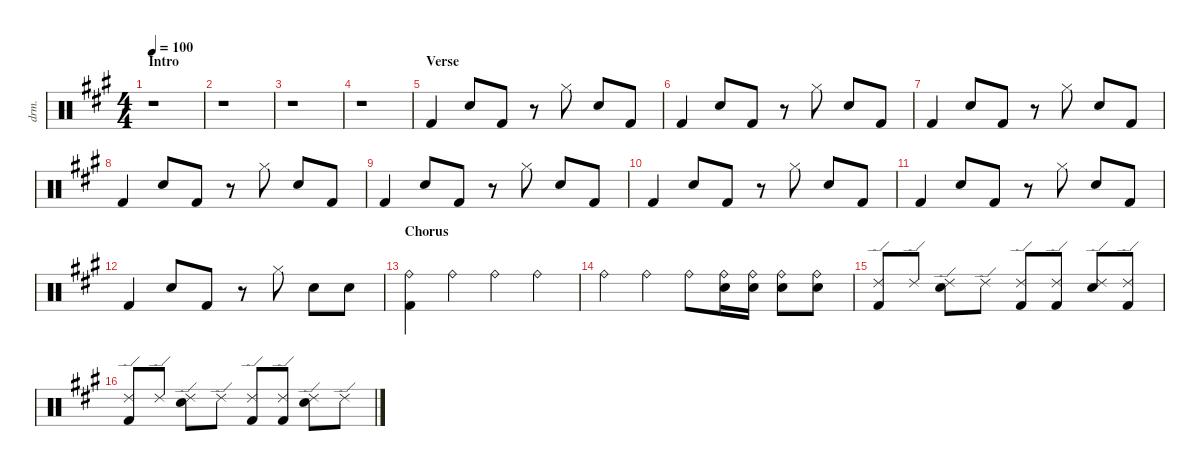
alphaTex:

\defaultSystemsLayout 4
\hideDynamics
\bracketExtendMode nobrackets
\track ("Drums" "drm.") {instrument percussion}
\staff {score}
\articulation defaults
\ts (4 4)
\section ("" "Intro")
\tempo 100
\clef neutral
\ks a
r.1{dy f} |
r.1 |
r.1 |
r.1 |
\section ("" "Verse")
"Kick (hit) 2"{acc forcenatural}.4 "Snare (hit) 2"{acc forcenatural}.8 "Kick (hit) 2"{acc forcenatural}.8 r.8 "Hi-Hat (closed)"{acc forcenatural}.8 "Snare (hit) 2"{acc forcenatural}.8 "Kick (hit) 2"{acc forcenatural}.8 |
"Kick (hit) 2"{acc forcenatural}.4 "Snare (hit) 2"{acc forcenatural}.8 "Kick (hit) 2"{acc forcenatural}.8 r.8 "Hi-Hat (closed)"{acc forcenatural}.8 "Snare (hit) 2"{acc forcenatural}.8 "Kick (hit) 2"{acc forcenatural}.8 |
"Kick (hit) 2"{acc forcenatural}.4 "Snare (hit) 2"{acc forcenatural}.8 "Kick (hit) 2"{acc forcenatural}.8 r.8 "Hi-Hat (closed)"{acc forcenatural}.8 "Snare (hit) 2"{acc forcenatural}.8 "Kick (hit) 2"{acc forcenatural}.8 |
"Kick (hit) 2"{acc forcenatural}.4 "Snare (hit) 2"{acc forcenatural}.8 "Kick (hit) 2"{acc forcenatural}.8 r.8 "Hi-Hat (closed)"{acc forcenatural}.8 "Snare (hit) 2"{acc forcenatural}.8 "Kick (hit) 2"{acc forcenatural}.8 |
"Kick (hit) 2"{acc forcenatural}.4 "Snare (hit) 2"{acc forcenatural}.8 "Kick (hit) 2"{acc forcenatural}.8 r.8 "Hi-Hat (closed)"{acc forcenatural}.8 "Snare (hit) 2"{acc forcenatural}.8 "Kick (hit) 2"{acc forcenatural}.8 |
"Kick (hit) 2"{acc forcenatural}.4 "Snare (hit) 2"{acc forcenatural}.8 "Kick (hit) 2"{acc forcenatural}.8 r.8 "Hi-Hat (closed)"{acc forcenatural}.8 "Snare (hit) 2"{acc forcenatural}.8 "Kick (hit) 2"{acc forcenatural}.8 |
"Kick (hit) 2"{acc forcenatural}.4 "Snare (hit) 2"{acc forcenatural}.8 "Kick (hit) 2"{acc forcenatural}.8 r.8 "Hi-Hat (closed)"{acc forcenatural}.8 "Snare (hit) 2"{acc forcenatural}.8 "Kick (hit) 2"{acc forcenatural}.8 |
"Kick (hit) 2"{acc forcenatural}.4 "Snare (hit) 2"{acc forcenatural}.8 "Kick (hit) 2"{acc forcenatural}.8 r.8 "Hi-Hat (closed)"{acc forcenatural}.8 "Snare (hit) 2"{acc forcenatural}.8 "Snare (hit) 2"{acc forcenatural}.8 |
\section ("" "Chorus")
("Ride (bell)"{acc forcenatural} "Kick (hit) 2"{acc forcenatural}).4 "Ride (bell)"{acc forcenatural}.4 "Ride (bell)"{acc forcenatural}.4 "Ride (bell)"{acc forcenatural}.4 |
"Ride (bell)"{acc forcenatural}.4 "Ride (bell)"{acc forcenatural}.4 "Ride (bell)"{acc forcenatural}.8 ("Ride (bell)"{acc forcenatural} "Snare (hit) 2"{acc forcenatural}).16 ("Ride (bell)"{acc forcenatural} "Snare (hit) 2"{acc forcenatural}).16 ("Ride (bell)"{acc forcenatural} "Snare (hit) 2"{acc forcenatural}).8 ("Ride (bell)"{acc forcenatural} "Snare (hit) 2"{acc forcenatural}).8 |
("Ride (edge) 2"{acc forcenatural} "Kick (hit) 2"{acc forcenatural}).8 "Ride (edge) 2"{acc forcenatural}.8 ("Ride (edge) 2"{acc forcenatural} "Snare (hit) 2"{acc forcenatural}).8 "Ride (edge) 2"{acc forcenatural}.8 ("Ride (edge) 2"{acc forcenatural} "Kick (hit) 2"{acc forcenatural}).8 ("Ride (edge) 2"{acc forcenatural} "Kick (hit) 2"{acc forcenatural}).8 ("Ride (edge) 2"{acc forcenatural} "Snare (hit) 2"{acc forcenatural}).8 ("Ride (edge) 2"{acc forcenatural} "Kick (hit) 2"{acc forcenatural}).8 |
("Ride (edge) 2"{acc forcenatural} "Kick (hit) 2"{acc forcenatural}).8 "Ride (edge) 2"{acc forcenatural}.8 ("Ride (edge) 2"{acc forcenatural} "Snare (hit) 2"{acc forcenatural}).8 "Ride (edge) 2"{acc forcenatural}.8 ("Ride (edge) 2"{acc forcenatural} "Kick (hit) 2"{acc forcenatural}).8 ("Ride (edge) 2"{acc forcenatural} "Kick (hit) 2"{acc forcenatural}).8 ("Ride (edge) 2"{acc forcenatural} "Snare (hit) 2"{acc forcenatural}).8 "Ride (edge) 2"{acc forcenatural}.8
